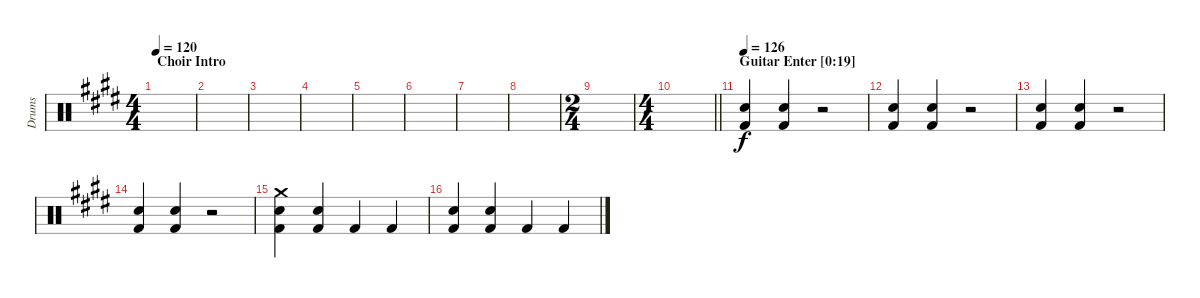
\track ("Drums" "Drums") {instrument percussion}
\staff {score}
\articulation defaults
\ts (4 4)
\section ("" "Choir Intro")
\tempo 120
\clef neutral
\ks c#minor
|
|
|
|
|
|
|
|
\ts (2 4)
|
\ts (4 4)
\barLineRight lightlight
|
\section ("" "Guitar Enter [0:19]")
\tempo 126
("Snare (hit) 2" "Kick (hit) 2").4 ("Snare (hit) 2" "Kick (hit) 2").4 r.2 |
("Snare (hit) 2" "Kick (hit) 2").4 ("Snare (hit) 2" "Kick (hit) 2").4 r.2 |
("Snare (hit) 2" "Kick (hit) 2").4 ("Snare (hit) 2" "Kick (hit) 2").4 r.2 |
("Snare (hit) 2" "Kick (hit) 2").4 ("Snare (hit) 2" "Kick (hit) 2").4 r.2 |
("Crash medium (hit)" "Snare (hit) 2" "Kick (hit) 2").4 ("Snare (hit) 2" "Kick (hit) 2").4 "Kick (hit) 2".4 "Kick (hit) 2".4 |
("Snare (hit) 2" "Kick (hit) 2").4 ("Snare (hit) 2" "Kick (hit) 2").4 "Kick (hit) 2".4 "Kick (hit) 2".4
